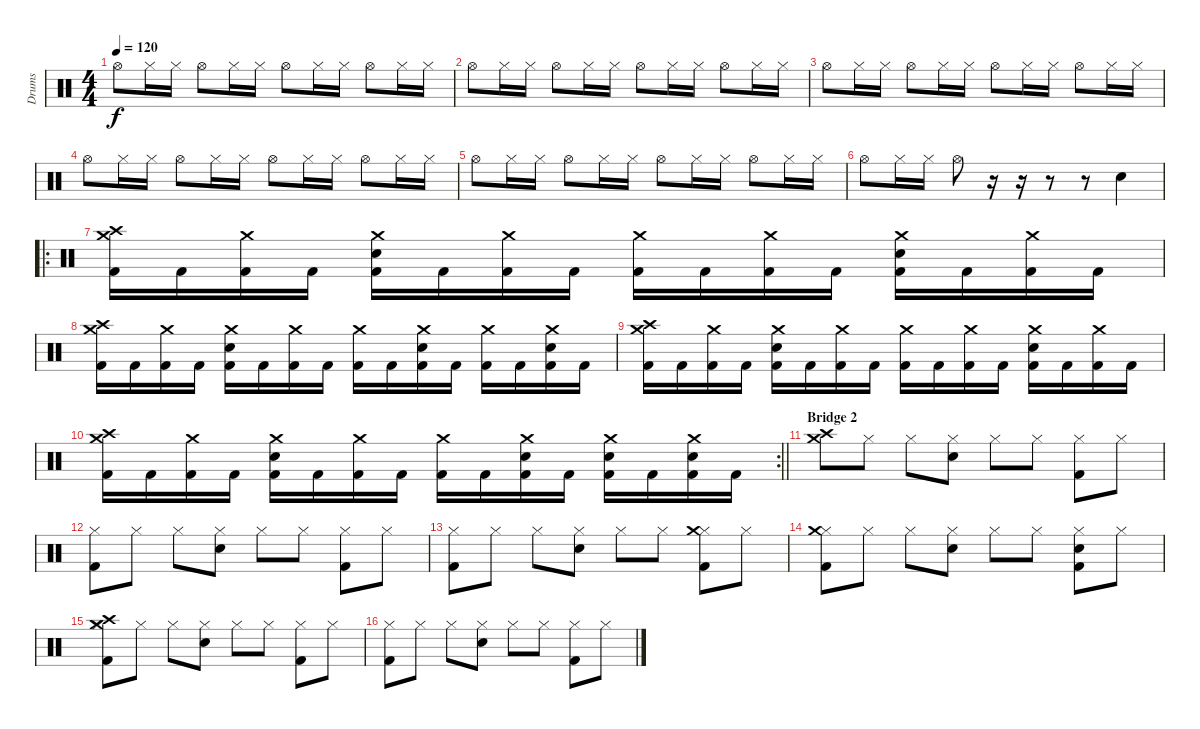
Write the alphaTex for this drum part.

\track ("Drums" "Drums") {instrument percussion}
\staff {score}
\articulation defaults
\ts (4 4)
\tempo 120
\clef neutral
\ks c "Hi-Hat (open)".8{dy f} "Hi-Hat (closed)".16 "Hi-Hat (closed)".16 "Hi-Hat (open)".8 "Hi-Hat (closed)".16 "Hi-Hat (closed)".16 "Hi-Hat (open)".8 "Hi-Hat (closed)".16 "Hi-Hat (closed)".16 "Hi-Hat (open)".8 "Hi-Hat (closed)".16 "Hi-Hat (closed)".16
|
"Hi-Hat (open)".8 "Hi-Hat (closed)".16 "Hi-Hat (closed)".16 "Hi-Hat (open)".8 "Hi-Hat (closed)".16 "Hi-Hat (closed)".16 "Hi-Hat (open)".8 "Hi-Hat (closed)".16 "Hi-Hat (closed)".16 "Hi-Hat (open)".8 "Hi-Hat (closed)".16 "Hi-Hat (closed)".16 |
"Hi-Hat (open)".8 "Hi-Hat (closed)".16 "Hi-Hat (closed)".16 "Hi-Hat (open)".8 "Hi-Hat (closed)".16 "Hi-Hat (closed)".16 "Hi-Hat (open)".8 "Hi-Hat (closed)".16 "Hi-Hat (closed)".16 "Hi-Hat (open)".8 "Hi-Hat (closed)".16 "Hi-Hat (closed)".16 |
"Hi-Hat (open)".8 "Hi-Hat (closed)".16 "Hi-Hat (closed)".16 "Hi-Hat (open)".8 "Hi-Hat (closed)".16 "Hi-Hat (closed)".16 "Hi-Hat (open)".8 "Hi-Hat (closed)".16 "Hi-Hat (closed)".16 "Hi-Hat (open)".8 "Hi-Hat (closed)".16 "Hi-Hat (closed)".16 |
"Hi-Hat (open)".8 "Hi-Hat (closed)".16 "Hi-Hat (closed)".16 "Hi-Hat (open)".8 "Hi-Hat (closed)".16 "Hi-Hat (closed)".16 "Hi-Hat (open)".8 "Hi-Hat (closed)".16 "Hi-Hat (closed)".16 "Hi-Hat (open)".8 "Hi-Hat (closed)".16 "Hi-Hat (closed)".16 |
"Hi-Hat (open)".8 "Hi-Hat (closed)".16 "Hi-Hat (closed)".16 "Hi-Hat (open)".8 r.16 r.16 r.8 r.8 "Snare (hit) 2".4 |
\ro
("Kick (hit) 2" "Crash medium (hit)" "Crash high (hit)").16 "Kick (hit) 2".16 ("Kick (hit) 2" "Crash medium (hit)").16 "Kick (hit) 2".16 ("Kick (hit) 2" "Snare (hit) 2" "Crash medium (hit)").16 "Kick (hit) 2".16 ("Kick (hit) 2" "Crash medium (hit)").16 "Kick (hit) 2".16 ("Kick (hit) 2" "Crash medium (hit)").16 "Kick (hit) 2".16 ("Kick (hit) 2" "Crash medium (hit)").16 "Kick (hit) 2".16 ("Kick (hit) 2" "Snare (hit) 2" "Crash medium (hit)").16 "Kick (hit) 2".16 ("Kick (hit) 2" "Crash medium (hit)").16 "Kick (hit) 2".16 |
("Kick (hit) 2" "Crash medium (hit)" "Crash high (hit)").16 "Kick (hit) 2".16 ("Kick (hit) 2" "Crash medium (hit)").16 "Kick (hit) 2".16 ("Kick (hit) 2" "Snare (hit) 2" "Crash medium (hit)").16 "Kick (hit) 2".16 ("Kick (hit) 2" "Crash medium (hit)").16 "Kick (hit) 2".16 ("Kick (hit) 2" "Crash medium (hit)").16 "Kick (hit) 2".16 ("Kick (hit) 2" "Snare (hit) 2" "Crash medium (hit)").16 "Kick (hit) 2".16 ("Kick (hit) 2" "Crash medium (hit)").16 "Kick (hit) 2".16 ("Kick (hit) 2" "Snare (hit) 2" "Crash medium (hit)").16 "Kick (hit) 2".16 |
("Kick (hit) 2" "Crash medium (hit)" "Crash high (hit)").16 "Kick (hit) 2".16 ("Kick (hit) 2" "Crash medium (hit)").16 "Kick (hit) 2".16 ("Kick (hit) 2" "Snare (hit) 2" "Crash medium (hit)").16 "Kick (hit) 2".16 ("Kick (hit) 2" "Crash medium (hit)").16 "Kick (hit) 2".16 ("Kick (hit) 2" "Crash medium (hit)").16 "Kick (hit) 2".16 ("Kick (hit) 2" "Crash medium (hit)").16 "Kick (hit) 2".16 ("Kick (hit) 2" "Snare (hit) 2" "Crash medium (hit)").16 "Kick (hit) 2".16 ("Kick (hit) 2" "Crash medium (hit)").16 "Kick (hit) 2".16 |
\rc 2
\barLineRight lightlight
("Kick (hit) 2" "Crash medium (hit)" "Crash high (hit)").16 "Kick (hit) 2".16 ("Kick (hit) 2" "Crash medium (hit)").16 "Kick (hit) 2".16 ("Kick (hit) 2" "Snare (hit) 2" "Crash medium (hit)").16 "Kick (hit) 2".16 ("Kick (hit) 2" "Crash medium (hit)").16 "Kick (hit) 2".16 ("Kick (hit) 2" "Crash medium (hit)").16 "Kick (hit) 2".16 ("Kick (hit) 2" "Snare (hit) 2" "Crash medium (hit)").16 "Kick (hit) 2".16 ("Kick (hit) 2" "Snare (hit) 2" "Crash medium (hit)").16 "Kick (hit) 2".16 ("Kick (hit) 2" "Snare (hit) 2" "Crash medium (hit)").16 "Kick (hit) 2".16 |
\section ("" "Bridge 2")
("Crash high (hit)" "Crash medium (hit)").8 "Hi-Hat (closed)".8 "Hi-Hat (closed)".8 ("Snare (hit) 2" "Hi-Hat (closed)").8 "Hi-Hat (closed)".8 "Hi-Hat (closed)".8 ("Kick (hit) 2" "Hi-Hat (closed)").8 "Hi-Hat (closed)".8 |
("Kick (hit) 2" "Hi-Hat (closed)").8 "Hi-Hat (closed)".8 "Hi-Hat (closed)".8 ("Snare (hit) 2" "Hi-Hat (closed)").8 "Hi-Hat (closed)".8 "Hi-Hat (closed)".8 ("Kick (hit) 2" "Hi-Hat (closed)").8 "Hi-Hat (closed)".8 |
("Kick (hit) 2" "Hi-Hat (closed)").8 "Hi-Hat (closed)".8 "Hi-Hat (closed)".8 ("Snare (hit) 2" "Hi-Hat (closed)").8 "Hi-Hat (closed)".8 "Hi-Hat (closed)".8 ("Kick (hit) 2" "Hi-Hat (closed)" "Crash medium (hit)").8 "Hi-Hat (closed)".8 |
("Kick (hit) 2" "Hi-Hat (closed)" "Crash medium (hit)").8 "Hi-Hat (closed)".8 "Hi-Hat (closed)".8 ("Snare (hit) 2" "Hi-Hat (closed)").8 "Hi-Hat (closed)".8 "Hi-Hat (closed)".8 ("Kick (hit) 2" "Snare (hit) 2" "Hi-Hat (closed)").8 "Hi-Hat (closed)".8 |
("Kick (hit) 2" "Hi-Hat (closed)" "Crash high (hit)" "Crash medium (hit)").8 "Hi-Hat (closed)".8 "Hi-Hat (closed)".8 ("Snare (hit) 2" "Hi-Hat (closed)").8 "Hi-Hat (closed)".8 "Hi-Hat (closed)".8 ("Kick (hit) 2" "Hi-Hat (closed)").8 "Hi-Hat (closed)".8 |
("Kick (hit) 2" "Hi-Hat (closed)").8 "Hi-Hat (closed)".8 "Hi-Hat (closed)".8 ("Snare (hit) 2" "Hi-Hat (closed)").8 "Hi-Hat (closed)".8 "Hi-Hat (closed)".8 ("Kick (hit) 2" "Hi-Hat (closed)").8 "Hi-Hat (closed)".8
